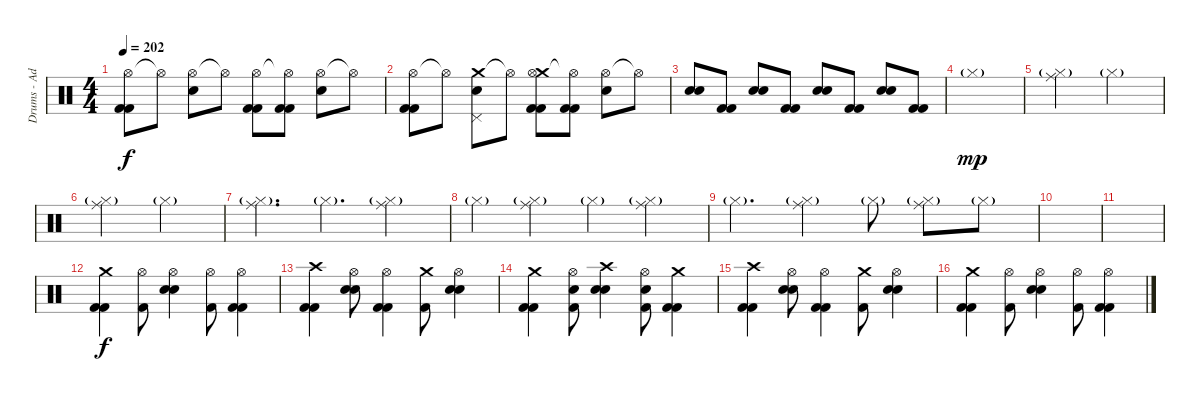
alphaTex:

\track ("Drums - Adam" "Drums - Ad") {instrument percussion}
\staff {score}
\articulation defaults
\ts (4 4)
\tempo 202
\clef neutral
\ks c
("Hi-Hat (open)" "Kick (hit) 2" "Kick (hit) 2").8{dy f} "Hi-Hat (open)"{t}.8 ("Hi-Hat (open)" "Electric Snare (hit)").8 "Hi-Hat (open)"{t}.8 ("Hi-Hat (open)" "Kick (hit) 2" "Kick (hit) 2").8 ("Hi-Hat (open)"{t} "Kick (hit) 2" "Kick (hit) 2").8 ("Hi-Hat (open)" "Electric Snare (hit)").8 "Hi-Hat (open)"{t}.8 |
("Hi-Hat (open)" "Kick (hit) 2" "Kick (hit) 2").8 "Hi-Hat (open)"{t}.8 ("Crash medium (hit)" "Pedal Hi-Hat (hit)" "Electric Snare (hit)").8 "Hi-Hat (open)"{t}.8 ("Crash medium (hit)" "Hi-Hat (open)" "Kick (hit) 2" "Kick (hit) 2").8 ("Hi-Hat (open)"{t} "Kick (hit) 2" "Kick (hit) 2").8 ("Hi-Hat (open)" "Electric Snare (hit)").8 "Hi-Hat (open)"{t}.8 |
("Snare (hit) 2" "Electric Snare (hit)").8 ("Kick (hit) 2" "Kick (hit) 2").8 ("Snare (hit) 2" "Electric Snare (hit)").8 ("Kick (hit) 2" "Kick (hit) 2").8 ("Snare (hit) 2" "Electric Snare (hit)").8 ("Kick (hit) 2" "Kick (hit) 2").8 ("Snare (hit) 2" "Electric Snare (hit)").8 ("Kick (hit) 2" "Kick (hit) 2").8 |
"Hi-Hat (closed)"{g}.1{dy mp} |
("Ride (middle)" "Hi-Hat (closed)"{g}).2 "Hi-Hat (closed)"{g}.2 |
("Ride (middle)" "Hi-Hat (closed)"{g}).2 "Hi-Hat (closed)"{g}.2 |
("Ride (middle)" "Hi-Hat (closed)"{g}).4{d} "Hi-Hat (closed)"{g}.4{d} ("Ride (middle)" "Hi-Hat (closed)"{g}).4 |
"Hi-Hat (closed)"{g}.4 ("Ride (middle)" "Hi-Hat (closed)"{g}).4 "Hi-Hat (closed)"{g}.4 ("Ride (middle)" "Hi-Hat (closed)"{g}).4 |
"Hi-Hat (closed)"{g}.4{d} ("Ride (middle)" "Hi-Hat (closed)"{g}).4 "Hi-Hat (closed)"{g}.8 ("Ride (middle)" "Hi-Hat (closed)"{g}).8 "Hi-Hat (closed)"{g}.8 |
|
|
("Crash medium (hit)" "Kick (hit) 2" "Kick (hit) 2").4{dy f} ("Hi-Hat (open)" "Kick (hit) 2").8 ("Hi-Hat (open)" "Snare (hit) 2" "Electric Snare (hit)").4 ("Hi-Hat (open)" "Kick (hit) 2").8 ("Hi-Hat (open)" "Kick (hit) 2" "Kick (hit) 2").4 |
("Crash high (hit)" "Kick (hit) 2" "Kick (hit) 2").4 ("Hi-Hat (open)" "Snare (hit) 2" "Electric Snare (hit)").8 ("Hi-Hat (open)" "Kick (hit) 2" "Kick (hit) 2").4 ("Crash medium (hit)" "Kick (hit) 2").8 ("Hi-Hat (open)" "Snare (hit) 2" "Electric Snare (hit)").4 |
("Crash medium (hit)" "Kick (hit) 2" "Kick (hit) 2").4 ("Hi-Hat (open)" "Electric Snare (hit)" "Kick (hit) 2").8 ("Crash high (hit)" "Snare (hit) 2" "Electric Snare (hit)").4 ("Hi-Hat (open)" "Electric Snare (hit)" "Kick (hit) 2").8 ("Crash medium (hit)" "Kick (hit) 2" "Kick (hit) 2").4 |
("Crash high (hit)" "Kick (hit) 2" "Kick (hit) 2").4 ("Hi-Hat (open)" "Snare (hit) 2" "Electric Snare (hit)").8 ("Hi-Hat (open)" "Kick (hit) 2" "Kick (hit) 2").4 ("Crash medium (hit)" "Kick (hit) 2").8 ("Hi-Hat (open)" "Snare (hit) 2" "Electric Snare (hit)").4 |
("Crash medium (hit)" "Kick (hit) 2" "Kick (hit) 2").4 ("Hi-Hat (open)" "Kick (hit) 2").8 ("Hi-Hat (open)" "Snare (hit) 2" "Electric Snare (hit)").4 ("Hi-Hat (open)" "Kick (hit) 2").8 ("Hi-Hat (open)" "Kick (hit) 2" "Kick (hit) 2").4
